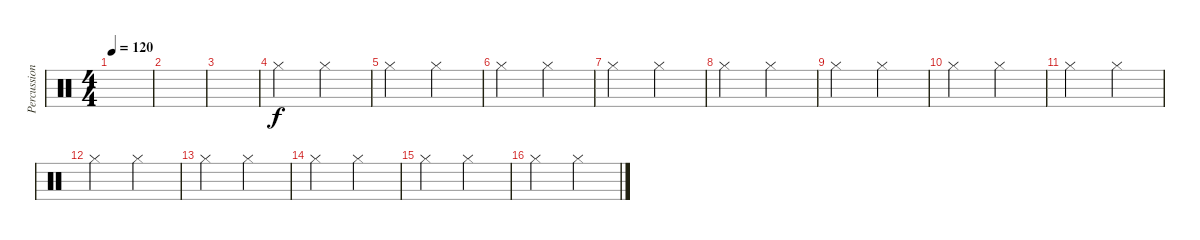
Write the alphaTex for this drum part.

\track ("Percussions" "Percussion") {instrument percussion}
\staff {score}
\articulation defaults
\ts (4 4)
\tempo 120
\clef neutral
\ks c
|
|
|
"Hi-Hat (closed)".2 "Hi-Hat (closed)".2 |
"Hi-Hat (closed)".2 "Hi-Hat (closed)".2 |
"Hi-Hat (closed)".2 "Hi-Hat (closed)".2 |
"Hi-Hat (closed)".2 "Hi-Hat (closed)".2 |
"Hi-Hat (closed)".2 "Hi-Hat (closed)".2 |
"Hi-Hat (closed)".2 "Hi-Hat (closed)".2 |
"Hi-Hat (closed)".2 "Hi-Hat (closed)".2 |
"Hi-Hat (closed)".2 "Hi-Hat (closed)".2 |
"Hi-Hat (closed)".2 "Hi-Hat (closed)".2 |
"Hi-Hat (closed)".2 "Hi-Hat (closed)".2 |
"Hi-Hat (closed)".2 "Hi-Hat (closed)".2 |
"Hi-Hat (closed)".2 "Hi-Hat (closed)".2 |
"Hi-Hat (closed)".2 "Hi-Hat (closed)".2
